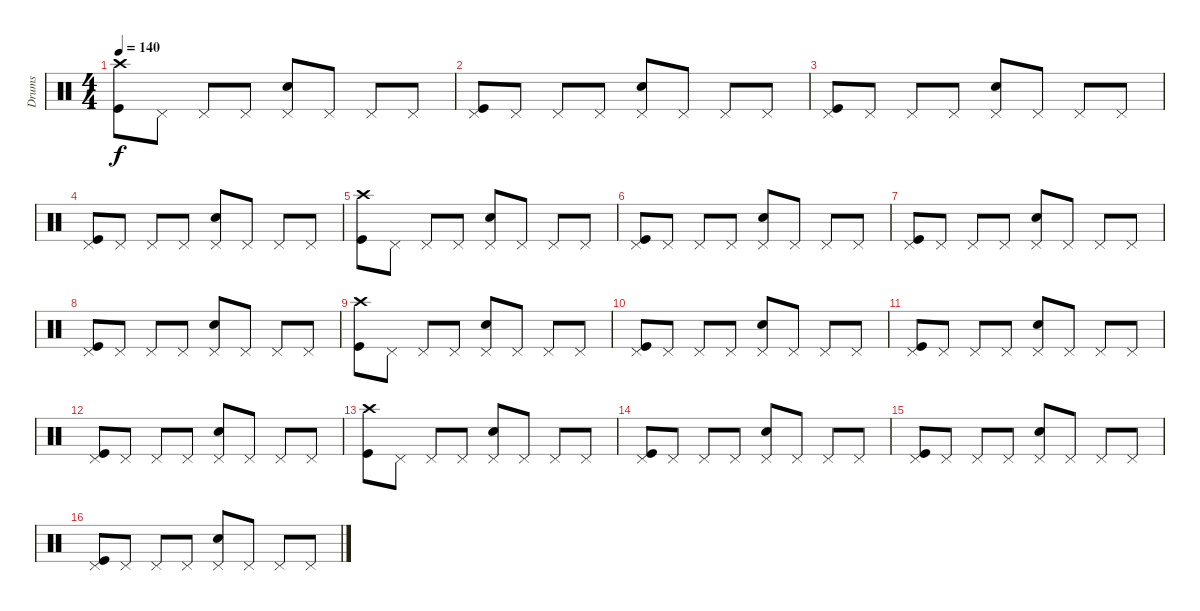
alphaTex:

\track ("Drums" "Drums") {instrument percussion}
\staff {score}
\articulation defaults
\ts (4 4)
\tempo 140
\clef neutral
\ks c
("Crash high (hit)" "Kick (hit)").8{dy f} "Pedal Hi-Hat (hit)".8 "Pedal Hi-Hat (hit)".8 "Pedal Hi-Hat (hit)".8 ("Pedal Hi-Hat (hit)" "Snare (hit) 2").8 "Pedal Hi-Hat (hit)".8 "Pedal Hi-Hat (hit)".8 "Pedal Hi-Hat (hit)".8 |
("Pedal Hi-Hat (hit)" "Kick (hit)").8 "Pedal Hi-Hat (hit)".8 "Pedal Hi-Hat (hit)".8 "Pedal Hi-Hat (hit)".8 ("Pedal Hi-Hat (hit)" "Snare (hit) 2").8 "Pedal Hi-Hat (hit)".8 "Pedal Hi-Hat (hit)".8 "Pedal Hi-Hat (hit)".8 |
("Pedal Hi-Hat (hit)" "Kick (hit)").8 "Pedal Hi-Hat (hit)".8 "Pedal Hi-Hat (hit)".8 "Pedal Hi-Hat (hit)".8 ("Pedal Hi-Hat (hit)" "Snare (hit) 2").8 "Pedal Hi-Hat (hit)".8 "Pedal Hi-Hat (hit)".8 "Pedal Hi-Hat (hit)".8 |
("Pedal Hi-Hat (hit)" "Kick (hit)").8 "Pedal Hi-Hat (hit)".8 "Pedal Hi-Hat (hit)".8 "Pedal Hi-Hat (hit)".8 ("Pedal Hi-Hat (hit)" "Snare (hit) 2").8 "Pedal Hi-Hat (hit)".8 "Pedal Hi-Hat (hit)".8 "Pedal Hi-Hat (hit)".8 |
("Crash high (hit)" "Kick (hit)").8 "Pedal Hi-Hat (hit)".8 "Pedal Hi-Hat (hit)".8 "Pedal Hi-Hat (hit)".8 ("Pedal Hi-Hat (hit)" "Snare (hit) 2").8 "Pedal Hi-Hat (hit)".8 "Pedal Hi-Hat (hit)".8 "Pedal Hi-Hat (hit)".8 |
("Pedal Hi-Hat (hit)" "Kick (hit)").8 "Pedal Hi-Hat (hit)".8 "Pedal Hi-Hat (hit)".8 "Pedal Hi-Hat (hit)".8 ("Pedal Hi-Hat (hit)" "Snare (hit) 2").8 "Pedal Hi-Hat (hit)".8 "Pedal Hi-Hat (hit)".8 "Pedal Hi-Hat (hit)".8 |
("Pedal Hi-Hat (hit)" "Kick (hit)").8 "Pedal Hi-Hat (hit)".8 "Pedal Hi-Hat (hit)".8 "Pedal Hi-Hat (hit)".8 ("Pedal Hi-Hat (hit)" "Snare (hit) 2").8 "Pedal Hi-Hat (hit)".8 "Pedal Hi-Hat (hit)".8 "Pedal Hi-Hat (hit)".8 |
("Pedal Hi-Hat (hit)" "Kick (hit)").8 "Pedal Hi-Hat (hit)".8 "Pedal Hi-Hat (hit)".8 "Pedal Hi-Hat (hit)".8 ("Pedal Hi-Hat (hit)" "Snare (hit) 2").8 "Pedal Hi-Hat (hit)".8 "Pedal Hi-Hat (hit)".8 "Pedal Hi-Hat (hit)".8 |
("Crash high (hit)" "Kick (hit)").8 "Pedal Hi-Hat (hit)".8 "Pedal Hi-Hat (hit)".8 "Pedal Hi-Hat (hit)".8 ("Pedal Hi-Hat (hit)" "Snare (hit) 2").8 "Pedal Hi-Hat (hit)".8 "Pedal Hi-Hat (hit)".8 "Pedal Hi-Hat (hit)".8 |
("Pedal Hi-Hat (hit)" "Kick (hit)").8 "Pedal Hi-Hat (hit)".8 "Pedal Hi-Hat (hit)".8 "Pedal Hi-Hat (hit)".8 ("Pedal Hi-Hat (hit)" "Snare (hit) 2").8 "Pedal Hi-Hat (hit)".8 "Pedal Hi-Hat (hit)".8 "Pedal Hi-Hat (hit)".8 |
("Pedal Hi-Hat (hit)" "Kick (hit)").8 "Pedal Hi-Hat (hit)".8 "Pedal Hi-Hat (hit)".8 "Pedal Hi-Hat (hit)".8 ("Pedal Hi-Hat (hit)" "Snare (hit) 2").8 "Pedal Hi-Hat (hit)".8 "Pedal Hi-Hat (hit)".8 "Pedal Hi-Hat (hit)".8 |
("Pedal Hi-Hat (hit)" "Kick (hit)").8 "Pedal Hi-Hat (hit)".8 "Pedal Hi-Hat (hit)".8 "Pedal Hi-Hat (hit)".8 ("Pedal Hi-Hat (hit)" "Snare (hit) 2").8 "Pedal Hi-Hat (hit)".8 "Pedal Hi-Hat (hit)".8 "Pedal Hi-Hat (hit)".8 |
("Crash high (hit)" "Kick (hit)").8 "Pedal Hi-Hat (hit)".8 "Pedal Hi-Hat (hit)".8 "Pedal Hi-Hat (hit)".8 ("Pedal Hi-Hat (hit)" "Snare (hit) 2").8 "Pedal Hi-Hat (hit)".8 "Pedal Hi-Hat (hit)".8 "Pedal Hi-Hat (hit)".8 |
("Pedal Hi-Hat (hit)" "Kick (hit)").8 "Pedal Hi-Hat (hit)".8 "Pedal Hi-Hat (hit)".8 "Pedal Hi-Hat (hit)".8 ("Pedal Hi-Hat (hit)" "Snare (hit) 2").8 "Pedal Hi-Hat (hit)".8 "Pedal Hi-Hat (hit)".8 "Pedal Hi-Hat (hit)".8 |
("Pedal Hi-Hat (hit)" "Kick (hit)").8 "Pedal Hi-Hat (hit)".8 "Pedal Hi-Hat (hit)".8 "Pedal Hi-Hat (hit)".8 ("Pedal Hi-Hat (hit)" "Snare (hit) 2").8 "Pedal Hi-Hat (hit)".8 "Pedal Hi-Hat (hit)".8 "Pedal Hi-Hat (hit)".8 |
("Pedal Hi-Hat (hit)" "Kick (hit)").8 "Pedal Hi-Hat (hit)".8 "Pedal Hi-Hat (hit)".8 "Pedal Hi-Hat (hit)".8 ("Pedal Hi-Hat (hit)" "Snare (hit) 2").8 "Pedal Hi-Hat (hit)".8 "Pedal Hi-Hat (hit)".8 "Pedal Hi-Hat (hit)".8
